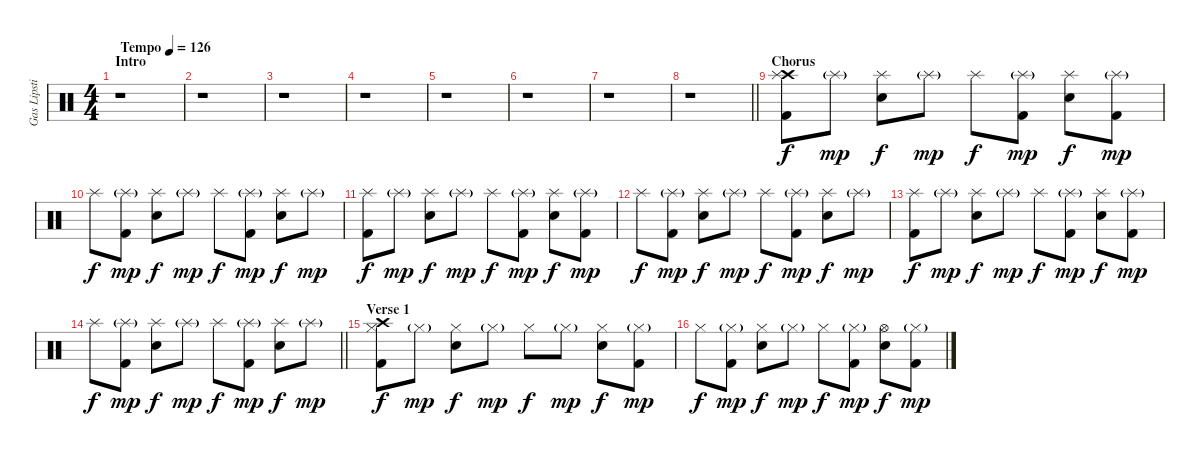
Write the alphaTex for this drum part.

\track ("Gas Lipstick (Drums)" "Gas Lipsti") {instrument percussion}
\staff {score}
\articulation defaults
\ts (4 4)
\section ("" "Intro")
\tempo (126 "Tempo")
\clef neutral
\ks c
r.1{dy f} |
r.1 |
r.1 |
r.1 |
r.1 |
r.1 |
r.1 |
\barLineRight lightlight
r.1 |
\section ("" "Chorus")
("Crash high (hit)" "Splash (hit)" "Kick (hit) 2").8 "Splash (hit)"{g}.8{dy mp} ("Splash (hit)" "Snare (hit) 2").8{dy f} "Splash (hit)"{g}.8{dy mp} "Splash (hit)".8{dy f} ("Splash (hit)"{g} "Kick (hit) 2").8{dy mp} ("Splash (hit)" "Snare (hit) 2").8{dy f} ("Splash (hit)"{g} "Kick (hit) 2").8{dy mp} |
"Splash (hit)".8{dy f} ("Splash (hit)"{g} "Kick (hit) 2").8{dy mp} ("Splash (hit)" "Snare (hit) 2").8{dy f} "Splash (hit)"{g}.8{dy mp} "Splash (hit)".8{dy f} ("Splash (hit)"{g} "Kick (hit) 2").8{dy mp} ("Splash (hit)" "Snare (hit) 2").8{dy f} "Splash (hit)"{g}.8{dy mp} |
("Splash (hit)" "Kick (hit) 2").8{dy f} "Splash (hit)"{g}.8{dy mp} ("Splash (hit)" "Snare (hit) 2").8{dy f} "Splash (hit)"{g}.8{dy mp} "Splash (hit)".8{dy f} ("Splash (hit)"{g} "Kick (hit) 2").8{dy mp} ("Splash (hit)" "Snare (hit) 2").8{dy f} ("Splash (hit)"{g} "Kick (hit) 2").8{dy mp} |
"Splash (hit)".8{dy f} ("Splash (hit)"{g} "Kick (hit) 2").8{dy mp} ("Splash (hit)" "Snare (hit) 2").8{dy f} "Splash (hit)"{g}.8{dy mp} "Splash (hit)".8{dy f} ("Splash (hit)"{g} "Kick (hit) 2").8{dy mp} ("Splash (hit)" "Snare (hit) 2").8{dy f} "Splash (hit)"{g}.8{dy mp} |
("Splash (hit)" "Kick (hit) 2").8{dy f} "Splash (hit)"{g}.8{dy mp} ("Splash (hit)" "Snare (hit) 2").8{dy f} "Splash (hit)"{g}.8{dy mp} "Splash (hit)".8{dy f} ("Splash (hit)"{g} "Kick (hit) 2").8{dy mp} ("Splash (hit)" "Snare (hit) 2").8{dy f} ("Splash (hit)"{g} "Kick (hit) 2").8{dy mp} |
\barLineRight lightlight "Splash (hit)".8{dy f}
("Splash (hit)"{g} "Kick (hit) 2").8{dy mp} ("Splash (hit)" "Snare (hit) 2").8{dy f} "Splash (hit)"{g}.8{dy mp} "Splash (hit)".8{dy f} ("Splash (hit)"{g} "Kick (hit) 2").8{dy mp} ("Splash (hit)" "Snare (hit) 2").8{dy f} "Splash (hit)"{g}.8{dy mp} |
\section ("" "Verse 1")
("Crash high (hit)" "Hi-Hat (closed)" "Kick (hit) 2").8{dy f} "Hi-Hat (closed)"{g}.8{dy mp} ("Hi-Hat (closed)" "Snare (hit) 2").8{dy f} "Hi-Hat (closed)"{g}.8{dy mp} "Hi-Hat (closed)".8{dy f} "Hi-Hat (closed)"{g}.8{dy mp} ("Hi-Hat (closed)" "Snare (hit) 2").8{dy f} ("Hi-Hat (closed)"{g} "Kick (hit) 2").8{dy mp} |
"Hi-Hat (closed)".8{dy f} ("Hi-Hat (closed)"{g} "Kick (hit) 2").8{dy mp} ("Hi-Hat (closed)" "Snare (hit) 2").8{dy f} "Hi-Hat (closed)"{g}.8{dy mp} "Hi-Hat (closed)".8{dy f} ("Hi-Hat (closed)"{g} "Kick (hit) 2").8{dy mp} ("Hi-Hat (open)" "Snare (hit) 2").8{dy f} ("Hi-Hat (closed)"{g} "Kick (hit) 2").8{dy mp}
